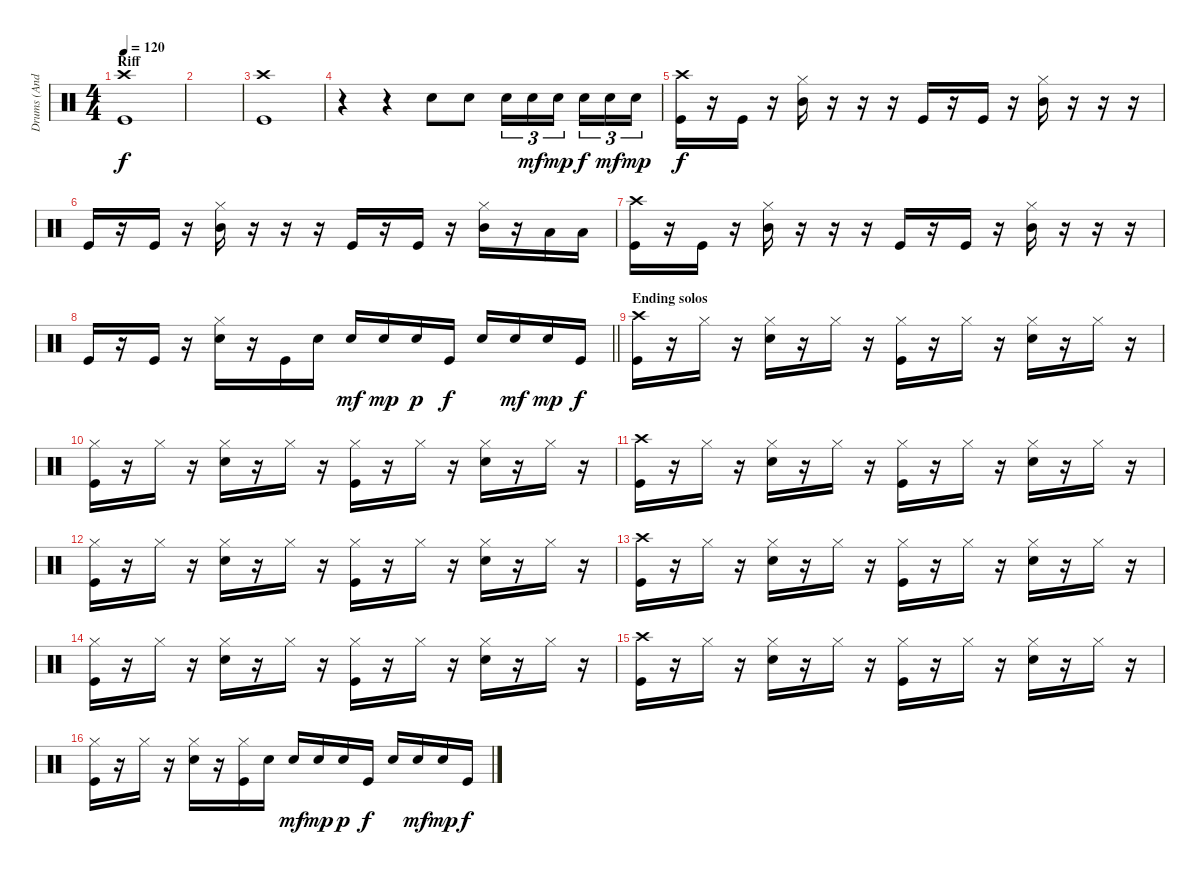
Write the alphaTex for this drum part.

\track ("Drums (Andy Parker)" "Drums (And") {instrument percussion}
\staff {score}
\articulation defaults
\ts (4 4)
\section ("" "Riff")
\tempo 120
\clef neutral
\ks c
("Crash high (hit)" "Kick (hit)").1{dy f} |
|
("Crash high (hit)" "Kick (hit)").1 |
r.4 r.4 "Electric Snare (hit)".8 "Electric Snare (hit)".8 "Electric Snare (hit)".16{tu (3 2)} "Electric Snare (hit)".16{tu (3 2) dy mf} "Electric Snare (hit)".16{tu (3 2) dy mp beam splitsecondary} "Electric Snare (hit)".16{tu (3 2) dy f} "Electric Snare (hit)".16{tu (3 2) dy mf} "Electric Snare (hit)".16{tu (3 2) dy mp} |
("Crash high (hit)" "Kick (hit)").16{dy f} r.16 "Kick (hit)".16 r.16 ("Hi-Hat (closed)" "Mid Tom (hit)").16 r.16 r.16 r.16 "Kick (hit)".16 r.16 "Kick (hit)".16 r.16 ("Hi-Hat (closed)" "Mid Tom (hit)").16 r.16 r.16 r.16 |
"Kick (hit)".16 r.16 "Kick (hit)".16 r.16 ("Hi-Hat (closed)" "Mid Tom (hit)").16 r.16 r.16 r.16 "Kick (hit)".16 r.16 "Kick (hit)".16 r.16 ("Hi-Hat (closed)" "Mid Tom (hit)").16 r.16 "Low Tom (hit)".16 "Low Tom (hit)".16 |
("Crash high (hit)" "Kick (hit)").16 r.16 "Kick (hit)".16 r.16 ("Hi-Hat (closed)" "Mid Tom (hit)").16 r.16 r.16 r.16 "Kick (hit)".16 r.16 "Kick (hit)".16 r.16 ("Hi-Hat (closed)" "Mid Tom (hit)").16 r.16 r.16 r.16 |
\barLineRight lightlight "Kick (hit)".16
r.16 "Kick (hit)".16 r.16 ("Hi-Hat (closed)" "Electric Snare (hit)").16 r.16 "Kick (hit)".16 "Electric Snare (hit)".16 "Electric Snare (hit)".16{dy mf} "Electric Snare (hit)".16{dy mp} "Electric Snare (hit)".16{dy p} "Kick (hit)".16{dy f} "Electric Snare (hit)".16 "Electric Snare (hit)".16{dy mf} "Electric Snare (hit)".16{dy mp} "Kick (hit)".16{dy f} |
\section ("" "Ending solos")
("Crash high (hit)" "Kick (hit)").16 r.16 "Hi-Hat (closed)".16 r.16 ("Hi-Hat (closed)" "Electric Snare (hit)").16 r.16 "Hi-Hat (closed)".16 r.16 ("Hi-Hat (closed)" "Kick (hit)").16 r.16 "Hi-Hat (closed)".16 r.16 ("Hi-Hat (closed)" "Electric Snare (hit)").16 r.16 "Hi-Hat (closed)".16 r.16 |
("Hi-Hat (closed)" "Kick (hit)").16 r.16 "Hi-Hat (closed)".16 r.16 ("Hi-Hat (closed)" "Electric Snare (hit)").16 r.16 "Hi-Hat (closed)".16 r.16 ("Hi-Hat (closed)" "Kick (hit)").16 r.16 "Hi-Hat (closed)".16 r.16 ("Hi-Hat (closed)" "Electric Snare (hit)").16 r.16 "Hi-Hat (closed)".16 r.16 |
("Crash high (hit)" "Kick (hit)").16 r.16 "Hi-Hat (closed)".16 r.16 ("Hi-Hat (closed)" "Electric Snare (hit)").16 r.16 "Hi-Hat (closed)".16 r.16 ("Hi-Hat (closed)" "Kick (hit)").16 r.16 "Hi-Hat (closed)".16 r.16 ("Hi-Hat (closed)" "Electric Snare (hit)").16 r.16 "Hi-Hat (closed)".16 r.16 |
("Hi-Hat (closed)" "Kick (hit)").16 r.16 "Hi-Hat (closed)".16 r.16 ("Hi-Hat (closed)" "Electric Snare (hit)").16 r.16 "Hi-Hat (closed)".16 r.16 ("Hi-Hat (closed)" "Kick (hit)").16 r.16 "Hi-Hat (closed)".16 r.16 ("Hi-Hat (closed)" "Electric Snare (hit)").16 r.16 "Hi-Hat (closed)".16 r.16 |
("Crash high (hit)" "Kick (hit)").16 r.16 "Hi-Hat (closed)".16 r.16 ("Hi-Hat (closed)" "Electric Snare (hit)").16 r.16 "Hi-Hat (closed)".16 r.16 ("Hi-Hat (closed)" "Kick (hit)").16 r.16 "Hi-Hat (closed)".16 r.16 ("Hi-Hat (closed)" "Electric Snare (hit)").16 r.16 "Hi-Hat (closed)".16 r.16 |
("Hi-Hat (closed)" "Kick (hit)").16 r.16 "Hi-Hat (closed)".16 r.16 ("Hi-Hat (closed)" "Electric Snare (hit)").16 r.16 "Hi-Hat (closed)".16 r.16 ("Hi-Hat (closed)" "Kick (hit)").16 r.16 "Hi-Hat (closed)".16 r.16 ("Hi-Hat (closed)" "Electric Snare (hit)").16 r.16 "Hi-Hat (closed)".16 r.16 |
("Crash high (hit)" "Kick (hit)").16 r.16 "Hi-Hat (closed)".16 r.16 ("Hi-Hat (closed)" "Electric Snare (hit)").16 r.16 "Hi-Hat (closed)".16 r.16 ("Hi-Hat (closed)" "Kick (hit)").16 r.16 "Hi-Hat (closed)".16 r.16 ("Hi-Hat (closed)" "Electric Snare (hit)").16 r.16 "Hi-Hat (closed)".16 r.16 |
("Hi-Hat (closed)" "Kick (hit)").16 r.16 "Hi-Hat (closed)".16 r.16 ("Hi-Hat (closed)" "Electric Snare (hit)").16 r.16 ("Hi-Hat (closed)" "Kick (hit)").16 "Electric Snare (hit)".16 "Electric Snare (hit)".16{dy mf} "Electric Snare (hit)".16{dy mp} "Electric Snare (hit)".16{dy p} "Kick (hit)".16{dy f} "Electric Snare (hit)".16 "Electric Snare (hit)".16{dy mf} "Electric Snare (hit)".16{dy mp} "Kick (hit)".16{dy f}
